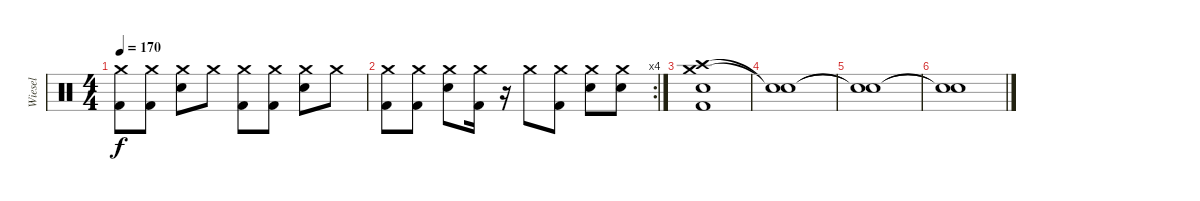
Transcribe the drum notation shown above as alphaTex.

\track ("Wiesel" "Wiesel") {instrument percussion}
\staff {score}
\articulation defaults
\ts (4 4)
\tempo 170
\clef neutral
\ks c
("Crash medium (hit)" "Kick (hit) 2").8{dy f} ("Crash medium (hit)" "Kick (hit) 2").8 ("Crash medium (hit)" "Snare (hit) 2").8 "Crash medium (hit)".8 ("Crash medium (hit)" "Kick (hit) 2").8 ("Crash medium (hit)" "Kick (hit) 2").8 ("Crash medium (hit)" "Snare (hit) 2").8 "Crash medium (hit)".8 |
\rc 4
("Crash medium (hit)" "Kick (hit) 2").8 ("Crash medium (hit)" "Kick (hit) 2").8 ("Crash medium (hit)" "Snare (hit) 2").8 ("Crash medium (hit)" "Kick (hit) 2").16 r.16 "Crash medium (hit)".8 ("Crash medium (hit)" "Kick (hit) 2").8 ("Crash medium (hit)" "Snare (hit) 2").8 ("Crash medium (hit)" "Snare (hit) 2").8 |
("Crash medium (hit)" "Crash high (hit)" "Snare (hit) 2" "Kick (hit) 2").1 |
("Snare (hit)"{t} "Snare (hit)"{t}).1 |
("Snare (hit)"{t} "Snare (hit)"{t}).1 |
("Snare (hit)"{t} "Snare (hit)"{t}).1
